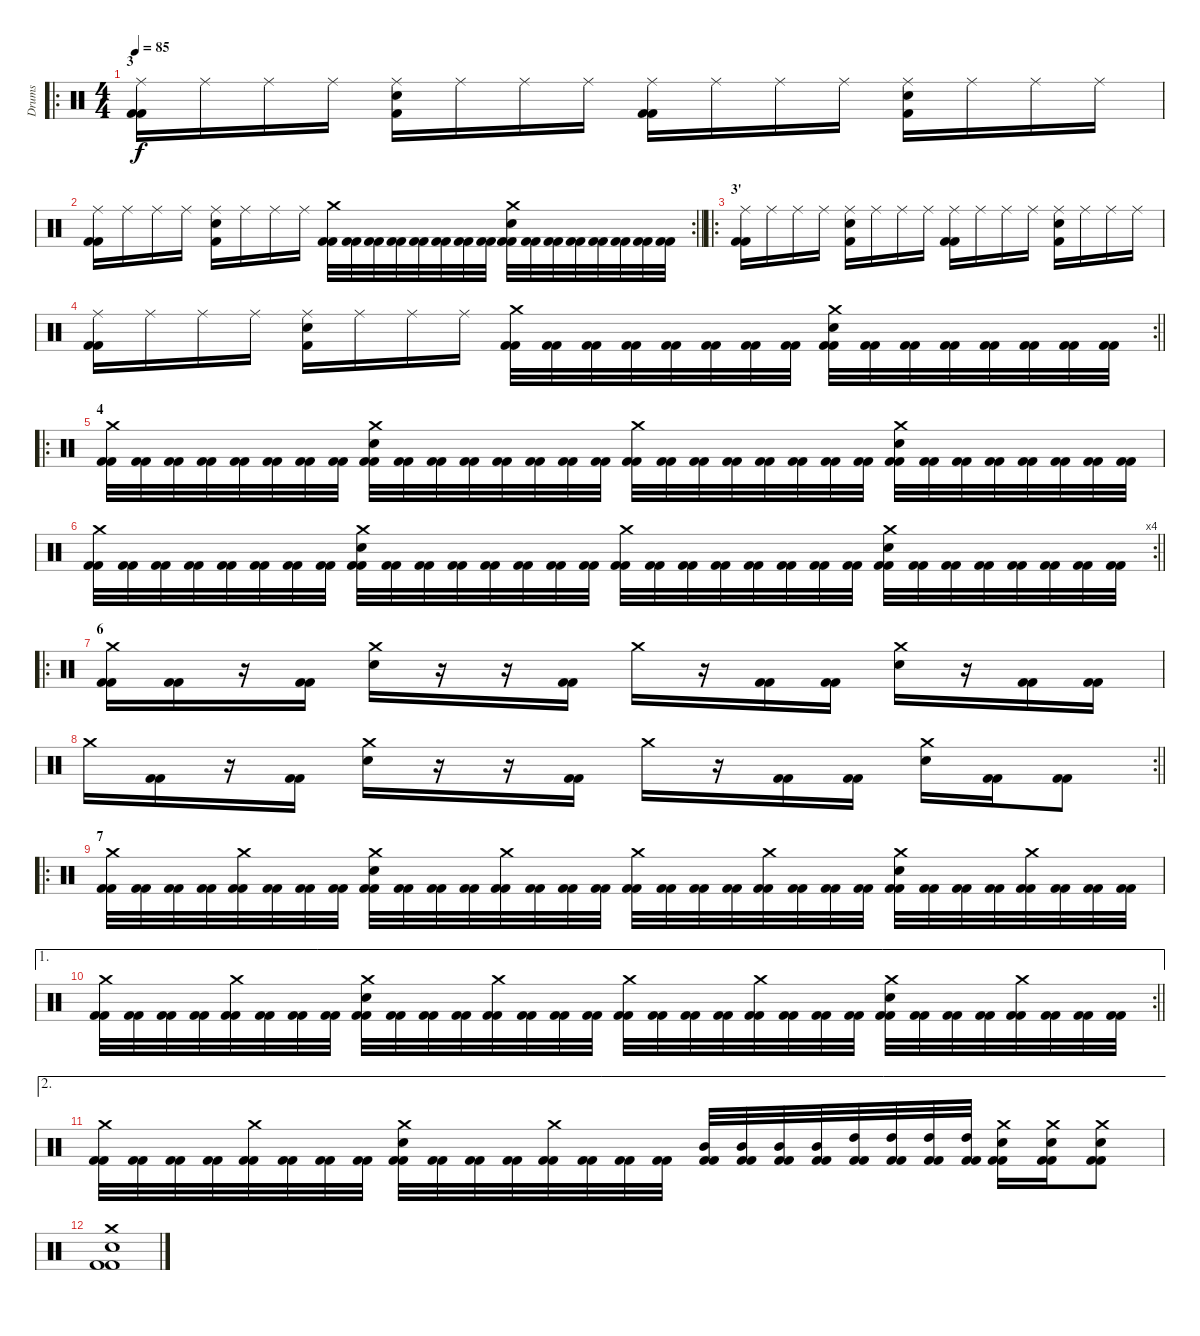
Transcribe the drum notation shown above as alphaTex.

\track ("Drums" "Drums") {instrument percussion}
\staff {score}
\articulation defaults
\ro
\ts (4 4)
\section ("" "3")
\tempo 85
\clef neutral
\ks c
("Kick (hit) 2" "Kick (hit) 2" "Ride (middle)").16{dy f} "Ride (middle)".16 "Ride (middle)".16 "Ride (middle)".16 ("Snare (hit) 2" "Kick (hit) 2" "Ride (middle)").16 "Ride (middle)".16 "Ride (middle)".16 "Ride (middle)".16 ("Kick (hit) 2" "Kick (hit) 2" "Ride (middle)").16 "Ride (middle)".16 "Ride (middle)".16 "Ride (middle)".16 ("Snare (hit) 2" "Kick (hit) 2" "Ride (middle)").16 "Ride (middle)".16 "Ride (middle)".16 "Ride (middle)".16 |
\rc 2
\barLineRight lightlight
("Kick (hit) 2" "Kick (hit) 2" "Ride (middle)").16 "Ride (middle)".16 "Ride (middle)".16 "Ride (middle)".16 ("Snare (hit) 2" "Kick (hit) 2" "Ride (middle)").16 "Ride (middle)".16 "Ride (middle)".16 "Ride (middle)".16 ("Crash medium (hit)" "Kick (hit) 2" "Kick (hit) 2").32 ("Kick (hit) 2" "Kick (hit) 2").32 ("Kick (hit) 2" "Kick (hit) 2").32 ("Kick (hit) 2" "Kick (hit) 2").32 ("Kick (hit) 2" "Kick (hit) 2").32 ("Kick (hit) 2" "Kick (hit) 2").32 ("Kick (hit) 2" "Kick (hit) 2").32 ("Kick (hit) 2" "Kick (hit) 2").32 ("Crash medium (hit)" "Snare (hit) 2" "Kick (hit) 2" "Kick (hit) 2").32 ("Kick (hit) 2" "Kick (hit) 2").32 ("Kick (hit) 2" "Kick (hit) 2").32 ("Kick (hit) 2" "Kick (hit) 2").32 ("Kick (hit) 2" "Kick (hit) 2").32 ("Kick (hit) 2" "Kick (hit) 2").32 ("Kick (hit) 2" "Kick (hit) 2").32 ("Kick (hit) 2" "Kick (hit) 2").32 |
\ro
\section ("" "3'")
("Kick (hit) 2" "Kick (hit) 2" "Ride (middle)").16 "Ride (middle)".16 "Ride (middle)".16 "Ride (middle)".16 ("Snare (hit) 2" "Kick (hit) 2" "Ride (middle)").16 "Ride (middle)".16 "Ride (middle)".16 "Ride (middle)".16 ("Kick (hit) 2" "Kick (hit) 2" "Ride (middle)").16 "Ride (middle)".16 "Ride (middle)".16 "Ride (middle)".16 ("Snare (hit) 2" "Kick (hit) 2" "Ride (middle)").16 "Ride (middle)".16 "Ride (middle)".16 "Ride (middle)".16 |
\rc 2
\barLineRight lightlight
("Kick (hit) 2" "Kick (hit) 2" "Ride (middle)").16 "Ride (middle)".16 "Ride (middle)".16 "Ride (middle)".16 ("Snare (hit) 2" "Kick (hit) 2" "Ride (middle)").16 "Ride (middle)".16 "Ride (middle)".16 "Ride (middle)".16 ("Crash medium (hit)" "Kick (hit) 2" "Kick (hit) 2").32 ("Kick (hit) 2" "Kick (hit) 2").32 ("Kick (hit) 2" "Kick (hit) 2").32 ("Kick (hit) 2" "Kick (hit) 2").32 ("Kick (hit) 2" "Kick (hit) 2").32 ("Kick (hit) 2" "Kick (hit) 2").32 ("Kick (hit) 2" "Kick (hit) 2").32 ("Kick (hit) 2" "Kick (hit) 2").32 ("Crash medium (hit)" "Snare (hit) 2" "Kick (hit) 2" "Kick (hit) 2").32 ("Kick (hit) 2" "Kick (hit) 2").32 ("Kick (hit) 2" "Kick (hit) 2").32 ("Kick (hit) 2" "Kick (hit) 2").32 ("Kick (hit) 2" "Kick (hit) 2").32 ("Kick (hit) 2" "Kick (hit) 2").32 ("Kick (hit) 2" "Kick (hit) 2").32 ("Kick (hit) 2" "Kick (hit) 2").32 |
\ro
\section ("" "4")
("Crash medium (hit)" "Kick (hit) 2" "Kick (hit) 2").32 ("Kick (hit) 2" "Kick (hit) 2").32 ("Kick (hit) 2" "Kick (hit) 2").32 ("Kick (hit) 2" "Kick (hit) 2").32 ("Kick (hit) 2" "Kick (hit) 2").32 ("Kick (hit) 2" "Kick (hit) 2").32 ("Kick (hit) 2" "Kick (hit) 2").32 ("Kick (hit) 2" "Kick (hit) 2").32 ("Crash medium (hit)" "Snare (hit) 2" "Kick (hit) 2" "Kick (hit) 2").32 ("Kick (hit) 2" "Kick (hit) 2").32 ("Kick (hit) 2" "Kick (hit) 2").32 ("Kick (hit) 2" "Kick (hit) 2").32 ("Kick (hit) 2" "Kick (hit) 2").32 ("Kick (hit) 2" "Kick (hit) 2").32 ("Kick (hit) 2" "Kick (hit) 2").32 ("Kick (hit) 2" "Kick (hit) 2").32 ("Crash medium (hit)" "Kick (hit) 2" "Kick (hit) 2").32 ("Kick (hit) 2" "Kick (hit) 2").32 ("Kick (hit) 2" "Kick (hit) 2").32 ("Kick (hit) 2" "Kick (hit) 2").32 ("Kick (hit) 2" "Kick (hit) 2").32 ("Kick (hit) 2" "Kick (hit) 2").32 ("Kick (hit) 2" "Kick (hit) 2").32 ("Kick (hit) 2" "Kick (hit) 2").32 ("Crash medium (hit)" "Snare (hit) 2" "Kick (hit) 2" "Kick (hit) 2").32 ("Kick (hit) 2" "Kick (hit) 2").32 ("Kick (hit) 2" "Kick (hit) 2").32 ("Kick (hit) 2" "Kick (hit) 2").32 ("Kick (hit) 2" "Kick (hit) 2").32 ("Kick (hit) 2" "Kick (hit) 2").32 ("Kick (hit) 2" "Kick (hit) 2").32 ("Kick (hit) 2" "Kick (hit) 2").32 |
\rc 4
\barLineRight lightlight
("Crash medium (hit)" "Kick (hit) 2" "Kick (hit) 2").32 ("Kick (hit) 2" "Kick (hit) 2").32 ("Kick (hit) 2" "Kick (hit) 2").32 ("Kick (hit) 2" "Kick (hit) 2").32 ("Kick (hit) 2" "Kick (hit) 2").32 ("Kick (hit) 2" "Kick (hit) 2").32 ("Kick (hit) 2" "Kick (hit) 2").32 ("Kick (hit) 2" "Kick (hit) 2").32 ("Crash medium (hit)" "Snare (hit) 2" "Kick (hit) 2" "Kick (hit) 2").32 ("Kick (hit) 2" "Kick (hit) 2").32 ("Kick (hit) 2" "Kick (hit) 2").32 ("Kick (hit) 2" "Kick (hit) 2").32 ("Kick (hit) 2" "Kick (hit) 2").32 ("Kick (hit) 2" "Kick (hit) 2").32 ("Kick (hit) 2" "Kick (hit) 2").32 ("Kick (hit) 2" "Kick (hit) 2").32 ("Crash medium (hit)" "Kick (hit) 2" "Kick (hit) 2").32 ("Kick (hit) 2" "Kick (hit) 2").32 ("Kick (hit) 2" "Kick (hit) 2").32 ("Kick (hit) 2" "Kick (hit) 2").32 ("Kick (hit) 2" "Kick (hit) 2").32 ("Kick (hit) 2" "Kick (hit) 2").32 ("Kick (hit) 2" "Kick (hit) 2").32 ("Kick (hit) 2" "Kick (hit) 2").32 ("Crash medium (hit)" "Snare (hit) 2" "Kick (hit) 2" "Kick (hit) 2").32 ("Kick (hit) 2" "Kick (hit) 2").32 ("Kick (hit) 2" "Kick (hit) 2").32 ("Kick (hit) 2" "Kick (hit) 2").32 ("Kick (hit) 2" "Kick (hit) 2").32 ("Kick (hit) 2" "Kick (hit) 2").32 ("Kick (hit) 2" "Kick (hit) 2").32 ("Kick (hit) 2" "Kick (hit) 2").32 |
\ro
\section ("" "6")
("Crash medium (hit)" "Kick (hit) 2" "Kick (hit) 2").16 ("Kick (hit) 2" "Kick (hit) 2").16 r.16 ("Kick (hit) 2" "Kick (hit) 2").16 ("Crash medium (hit)" "Snare (hit) 2").16 r.16 r.16 ("Kick (hit) 2" "Kick (hit) 2").16 "Crash medium (hit)".16 r.16 ("Kick (hit) 2" "Kick (hit) 2").16 ("Kick (hit) 2" "Kick (hit) 2").16 ("Crash medium (hit)" "Snare (hit) 2").16 r.16 ("Kick (hit) 2" "Kick (hit) 2").16 ("Kick (hit) 2" "Kick (hit) 2").16 |
\rc 2
\barLineRight lightlight "Crash medium (hit)".16
("Kick (hit) 2" "Kick (hit) 2").16 r.16 ("Kick (hit) 2" "Kick (hit) 2").16 ("Crash medium (hit)" "Snare (hit) 2").16 r.16 r.16 ("Kick (hit) 2" "Kick (hit) 2").16 "Crash medium (hit)".16 r.16 ("Kick (hit) 2" "Kick (hit) 2").16 ("Kick (hit) 2" "Kick (hit) 2").16 ("Crash medium (hit)" "Snare (hit) 2").16 ("Kick (hit) 2" "Kick (hit) 2").16 ("Kick (hit) 2" "Kick (hit) 2").8 |
\ro
\section ("" "7")
("Crash medium (hit)" "Kick (hit) 2" "Kick (hit) 2").32 ("Kick (hit) 2" "Kick (hit) 2").32 ("Kick (hit) 2" "Kick (hit) 2").32 ("Kick (hit) 2" "Kick (hit) 2").32 ("Crash medium (hit)" "Kick (hit) 2" "Kick (hit) 2").32 ("Kick (hit) 2" "Kick (hit) 2").32 ("Kick (hit) 2" "Kick (hit) 2").32 ("Kick (hit) 2" "Kick (hit) 2").32 ("Snare (hit) 2" "Crash medium (hit)" "Kick (hit) 2" "Kick (hit) 2").32 ("Kick (hit) 2" "Kick (hit) 2").32 ("Kick (hit) 2" "Kick (hit) 2").32 ("Kick (hit) 2" "Kick (hit) 2").32 ("Crash medium (hit)" "Kick (hit) 2" "Kick (hit) 2").32 ("Kick (hit) 2" "Kick (hit) 2").32 ("Kick (hit) 2" "Kick (hit) 2").32 ("Kick (hit) 2" "Kick (hit) 2").32 ("Crash medium (hit)" "Kick (hit) 2" "Kick (hit) 2").32 ("Kick (hit) 2" "Kick (hit) 2").32 ("Kick (hit) 2" "Kick (hit) 2").32 ("Kick (hit) 2" "Kick (hit) 2").32 ("Crash medium (hit)" "Kick (hit) 2" "Kick (hit) 2").32 ("Kick (hit) 2" "Kick (hit) 2").32 ("Kick (hit) 2" "Kick (hit) 2").32 ("Kick (hit) 2" "Kick (hit) 2").32 ("Snare (hit) 2" "Crash medium (hit)" "Kick (hit) 2" "Kick (hit) 2").32 ("Kick (hit) 2" "Kick (hit) 2").32 ("Kick (hit) 2" "Kick (hit) 2").32 ("Kick (hit) 2" "Kick (hit) 2").32 ("Crash medium (hit)" "Kick (hit) 2" "Kick (hit) 2").32 ("Kick (hit) 2" "Kick (hit) 2").32 ("Kick (hit) 2" "Kick (hit) 2").32 ("Kick (hit) 2" "Kick (hit) 2").32 |
\ae 1
\rc 2
\barLineRight lightlight
("Crash medium (hit)" "Kick (hit) 2" "Kick (hit) 2").32 ("Kick (hit) 2" "Kick (hit) 2").32 ("Kick (hit) 2" "Kick (hit) 2").32 ("Kick (hit) 2" "Kick (hit) 2").32 ("Crash medium (hit)" "Kick (hit) 2" "Kick (hit) 2").32 ("Kick (hit) 2" "Kick (hit) 2").32 ("Kick (hit) 2" "Kick (hit) 2").32 ("Kick (hit) 2" "Kick (hit) 2").32 ("Snare (hit) 2" "Crash medium (hit)" "Kick (hit) 2" "Kick (hit) 2").32 ("Kick (hit) 2" "Kick (hit) 2").32 ("Kick (hit) 2" "Kick (hit) 2").32 ("Kick (hit) 2" "Kick (hit) 2").32 ("Crash medium (hit)" "Kick (hit) 2" "Kick (hit) 2").32 ("Kick (hit) 2" "Kick (hit) 2").32 ("Kick (hit) 2" "Kick (hit) 2").32 ("Kick (hit) 2" "Kick (hit) 2").32 ("Crash medium (hit)" "Kick (hit) 2" "Kick (hit) 2").32 ("Kick (hit) 2" "Kick (hit) 2").32 ("Kick (hit) 2" "Kick (hit) 2").32 ("Kick (hit) 2" "Kick (hit) 2").32 ("Crash medium (hit)" "Kick (hit) 2" "Kick (hit) 2").32 ("Kick (hit) 2" "Kick (hit) 2").32 ("Kick (hit) 2" "Kick (hit) 2").32 ("Kick (hit) 2" "Kick (hit) 2").32 ("Snare (hit) 2" "Crash medium (hit)" "Kick (hit) 2" "Kick (hit) 2").32 ("Kick (hit) 2" "Kick (hit) 2").32 ("Kick (hit) 2" "Kick (hit) 2").32 ("Kick (hit) 2" "Kick (hit) 2").32 ("Crash medium (hit)" "Kick (hit) 2" "Kick (hit) 2").32 ("Kick (hit) 2" "Kick (hit) 2").32 ("Kick (hit) 2" "Kick (hit) 2").32 ("Kick (hit) 2" "Kick (hit) 2").32 |
\ae 2
("Crash medium (hit)" "Kick (hit) 2" "Kick (hit) 2").32 ("Kick (hit) 2" "Kick (hit) 2").32 ("Kick (hit) 2" "Kick (hit) 2").32 ("Kick (hit) 2" "Kick (hit) 2").32 ("Crash medium (hit)" "Kick (hit) 2" "Kick (hit) 2").32 ("Kick (hit) 2" "Kick (hit) 2").32 ("Kick (hit) 2" "Kick (hit) 2").32 ("Kick (hit) 2" "Kick (hit) 2").32 ("Snare (hit) 2" "Crash medium (hit)" "Kick (hit) 2" "Kick (hit) 2").32 ("Kick (hit) 2" "Kick (hit) 2").32 ("Kick (hit) 2" "Kick (hit) 2").32 ("Kick (hit) 2" "Kick (hit) 2").32 ("Crash medium (hit)" "Kick (hit) 2" "Kick (hit) 2").32 ("Kick (hit) 2" "Kick (hit) 2").32 ("Kick (hit) 2" "Kick (hit) 2").32 ("Kick (hit) 2" "Kick (hit) 2").32 ("Mid Tom (hit)" "Kick (hit) 2" "Kick (hit) 2").32 ("Mid Tom (hit)" "Kick (hit) 2" "Kick (hit) 2").32 ("Mid Tom (hit)" "Kick (hit) 2" "Kick (hit) 2").32 ("Mid Tom (hit)" "Kick (hit) 2" "Kick (hit) 2").32 ("High Tom (hit)" "Kick (hit) 2" "Kick (hit) 2").32 ("High Tom (hit)" "Kick (hit) 2" "Kick (hit) 2").32 ("High Tom (hit)" "Kick (hit) 2" "Kick (hit) 2").32 ("High Tom (hit)" "Kick (hit) 2" "Kick (hit) 2").32 ("Crash medium (hit)" "Snare (hit) 2" "Kick (hit) 2" "Kick (hit) 2").16 ("Crash medium (hit)" "Snare (hit) 2" "Kick (hit) 2" "Kick (hit) 2").16 ("Crash medium (hit)" "Snare (hit) 2" "Kick (hit) 2" "Kick (hit) 2").8 |
("Crash medium (hit)" "Snare (hit) 2" "Kick (hit) 2" "Kick (hit) 2").1
